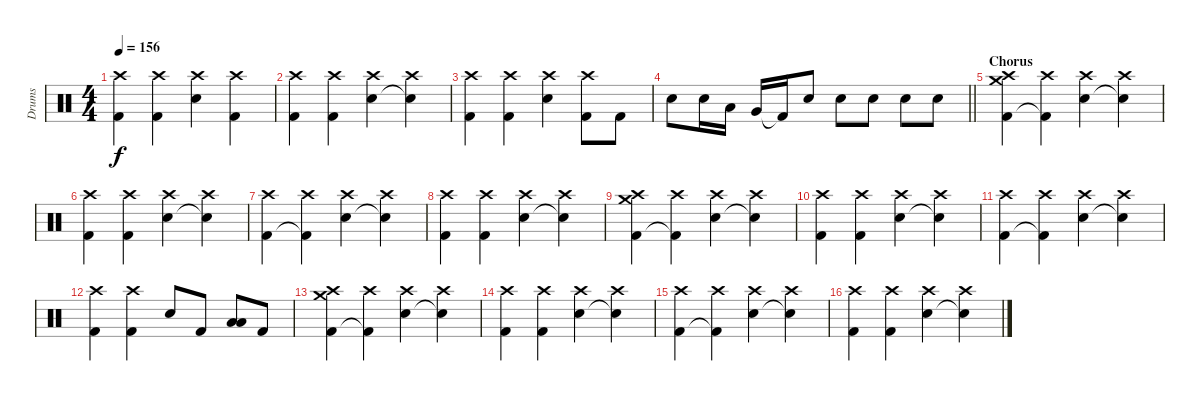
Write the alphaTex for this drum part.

\track ("Drums" "Drums") {instrument percussion}
\staff {score}
\articulation defaults
\ts (4 4)
\tempo 156
\clef neutral
\ks c
("Kick (hit) 2" "Crash high (hit)").4{dy f} ("Kick (hit) 2" "Crash high (hit)").4 ("Electric Snare (hit)" "Crash high (hit)").4 ("Kick (hit) 2" "Crash high (hit)").4 |
("Kick (hit) 2" "Crash high (hit)").4 ("Kick (hit) 2" "Crash high (hit)").4 ("Electric Snare (hit)" "Crash high (hit)").4 ("Snare (hit)"{t} "Crash high (hit)").4 |
("Kick (hit) 2" "Crash high (hit)").4 ("Kick (hit) 2" "Crash high (hit)").4 ("Electric Snare (hit)" "Crash high (hit)").4 ("Kick (hit) 2" "Crash high (hit)").8 "Kick (hit) 2".8 |
\barLineRight lightlight "Electric Snare (hit)".8 "Electric Snare (hit)".16 "Low Tom (hit)".16 "Very Low Tom (hit)".16 "Kick (hit) 2"{t}.16 "Electric Snare (hit)".8 "Electric Snare (hit)".8 "Electric Snare (hit)".8 "Electric Snare (hit)".8 "Electric Snare (hit)".8
|
\section ("" "Chorus")
("Kick (hit) 2" "Crash high (hit)" "Crash medium (hit)").4 ("Kick (hit) 2"{t} "Crash high (hit)").4 ("Electric Snare (hit)" "Crash high (hit)").4 ("Snare (hit)"{t} "Crash high (hit)").4 |
("Kick (hit) 2" "Crash high (hit)").4 ("Kick (hit) 2" "Crash high (hit)").4 ("Electric Snare (hit)" "Crash high (hit)").4 ("Snare (hit)"{t} "Crash high (hit)").4 |
("Kick (hit) 2" "Crash high (hit)").4 ("Kick (hit) 2"{t} "Crash high (hit)").4 ("Electric Snare (hit)" "Crash high (hit)").4 ("Snare (hit)"{t} "Crash high (hit)").4 |
("Kick (hit) 2" "Crash high (hit)").4 ("Kick (hit) 2" "Crash high (hit)").4 ("Electric Snare (hit)" "Crash high (hit)").4 ("Snare (hit)"{t} "Crash high (hit)").4 |
("Kick (hit) 2" "Crash high (hit)" "Crash medium (hit)").4 ("Kick (hit) 2"{t} "Crash high (hit)").4 ("Electric Snare (hit)" "Crash high (hit)").4 ("Snare (hit)"{t} "Crash high (hit)").4 |
("Kick (hit) 2" "Crash high (hit)").4 ("Kick (hit) 2" "Crash high (hit)").4 ("Electric Snare (hit)" "Crash high (hit)").4 ("Snare (hit)"{t} "Crash high (hit)").4 |
("Kick (hit) 2" "Crash high (hit)").4 ("Kick (hit) 2"{t} "Crash high (hit)").4 ("Electric Snare (hit)" "Crash high (hit)").4 ("Snare (hit)"{t} "Crash high (hit)").4 |
("Kick (hit) 2" "Crash high (hit)").4 ("Kick (hit) 2" "Crash high (hit)").4 "Electric Snare (hit)".8 "Kick (hit) 2".8 ("Low Tom (hit)" "Low Floor Tom (hit)").8 "Kick (hit) 2".8 |
("Kick (hit) 2" "Crash high (hit)" "Crash medium (hit)").4 ("Kick (hit) 2"{t} "Crash high (hit)").4 ("Electric Snare (hit)" "Crash high (hit)").4 ("Snare (hit)"{t} "Crash high (hit)").4 |
("Kick (hit) 2" "Crash high (hit)").4 ("Kick (hit) 2" "Crash high (hit)").4 ("Electric Snare (hit)" "Crash high (hit)").4 ("Snare (hit)"{t} "Crash high (hit)").4 |
("Kick (hit) 2" "Crash high (hit)").4 ("Kick (hit) 2"{t} "Crash high (hit)").4 ("Electric Snare (hit)" "Crash high (hit)").4 ("Snare (hit)"{t} "Crash high (hit)").4 |
("Kick (hit) 2" "Crash high (hit)").4 ("Kick (hit) 2" "Crash high (hit)").4 ("Electric Snare (hit)" "Crash high (hit)").4 ("Snare (hit)"{t} "Crash high (hit)").4
